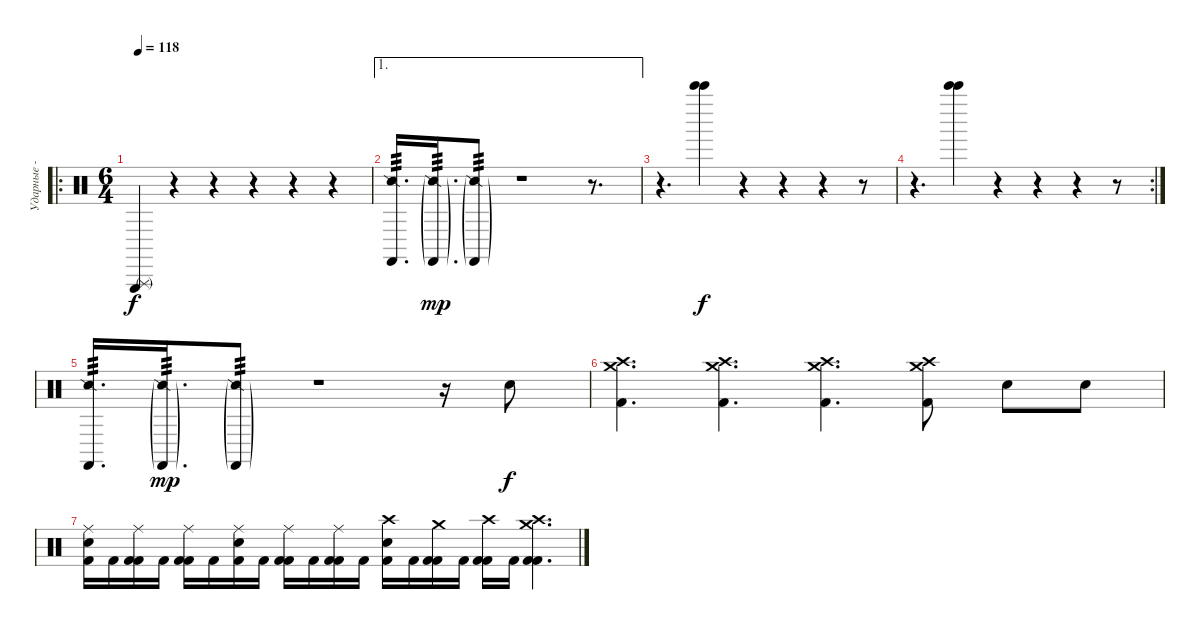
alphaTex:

\track ("Ударные - Андрей Лаптев" "Ударные - ") {instrument percussion}
\staff {score}
\articulation defaults
\ro
\ts (6 4)
\tempo 118
\clef neutral
\ks c
("Triangle (rnute)" "Triangle (hit)").4{dy f} r.4 r.4 r.4 r.4 r.4 |
\ae 1
("Snare (side stick) 2" "Castanets (hit)").16{d tp 3} ("Snare (side stick) 2"{g} "Castanets (hit)"{g}).16{d tp 3 dy mp} ("Snare (side stick) 2"{g} "Castanets (hit)"{g}).8{tp 3 volume 5} r.1 r.8{d} |
r.4{d volume 10} ("Bell Tree (hit)" "Bell Tree (hit)").4{dy f} r.4 r.4 r.4 r.8 |
\rc 2
r.4{d} ("Bell Tree (hit)" "Bell Tree (hit)").4 r.4 r.4 r.4 r.8 |
("Snare (side stick) 2" "Castanets (hit)").16{d tp 3} ("Snare (side stick) 2"{g} "Castanets (hit)"{g}).16{d tp 3 dy mp} ("Snare (side stick) 2"{g} "Castanets (hit)"{g}).8{tp 3 volume 5} r.1 r.16{volume 13} "Electric Snare (hit)".8{dy f} |
("Kick (hit) 2" "Crash high (hit)" "Crash medium (hit)").4{d} ("Kick (hit) 2" "Crash high (hit)" "Crash medium (hit)").4{d} ("Kick (hit) 2" "Crash high (hit)" "Crash medium (hit)").4{d} ("Kick (hit) 2" "Crash high (hit)" "Crash medium (hit)").8 "Electric Snare (hit)".8 "Electric Snare (hit)".8 |
("Electric Snare (hit)" "Kick (hit) 2" "Ride (middle)").16 "Kick (hit) 2".16 ("Kick (hit) 2" "Kick (hit) 2" "Ride (middle)").16 "Kick (hit) 2".16 ("Kick (hit) 2" "Kick (hit) 2" "Ride (middle)").16 "Kick (hit) 2".16 ("Electric Snare (hit)" "Kick (hit) 2" "Ride (middle)").16 "Kick (hit) 2".16 ("Kick (hit) 2" "Kick (hit) 2" "Ride (middle)").16 "Kick (hit) 2".16 ("Kick (hit) 2" "Kick (hit) 2" "Ride (middle)").16 "Kick (hit) 2".16 ("Electric Snare (hit)" "Kick (hit) 2" "Crash high (hit)").16 "Kick (hit) 2".16 ("Kick (hit) 2" "Kick (hit) 2" "Crash medium (hit)").16 "Kick (hit) 2".16 ("Kick (hit) 2" "Kick (hit) 2" "Crash high (hit)").16 "Kick (hit) 2".16 ("Kick (hit) 2" "Kick (hit) 2" "Crash medium (hit)" "Crash high (hit)").4{d}
